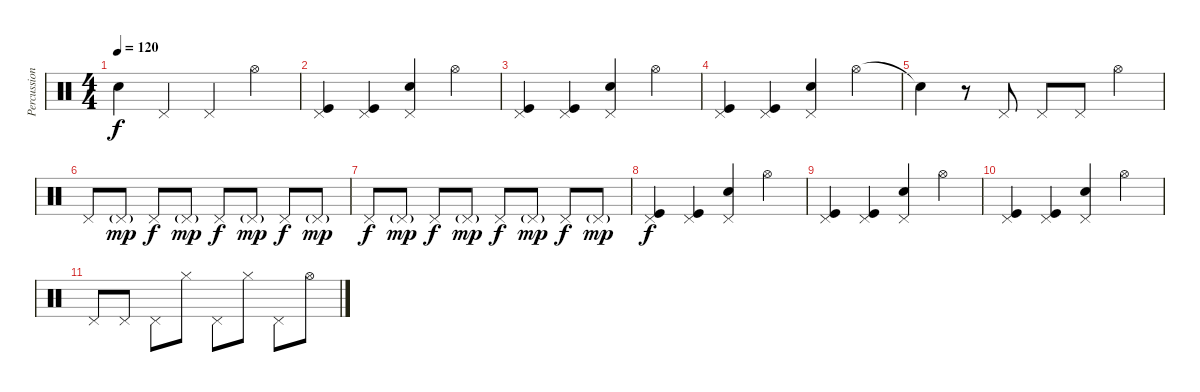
\track ("Percussion" "Percussion") {instrument percussion}
\staff {score}
\articulation defaults
\ts (4 4)
\tempo 120
\clef neutral
\ks c "Snare (hit)"{t}.4{dy f} "Pedal Hi-Hat (hit)".4 "Pedal Hi-Hat (hit)".4 "Hi-Hat (open)".4
|
("Pedal Hi-Hat (hit)" "Kick (hit)").4 ("Pedal Hi-Hat (hit)" "Kick (hit)").4 ("Pedal Hi-Hat (hit)" "Electric Snare (hit)").4 "Hi-Hat (open)".4 |
("Pedal Hi-Hat (hit)" "Kick (hit)").4 ("Pedal Hi-Hat (hit)" "Kick (hit)").4 ("Pedal Hi-Hat (hit)" "Electric Snare (hit)").4 "Hi-Hat (open)".4 |
("Pedal Hi-Hat (hit)" "Kick (hit)").4 ("Pedal Hi-Hat (hit)" "Kick (hit)").4 ("Pedal Hi-Hat (hit)" "Electric Snare (hit)").4 "Hi-Hat (open)".4 |
"Snare (hit)"{t}.4 r.8 "Pedal Hi-Hat (hit)".8 "Pedal Hi-Hat (hit)".8 "Pedal Hi-Hat (hit)".8 "Hi-Hat (open)".4 |
"Pedal Hi-Hat (hit)".8 "Pedal Hi-Hat (hit)"{g}.8{dy mp} "Pedal Hi-Hat (hit)".8{dy f} "Pedal Hi-Hat (hit)"{g}.8{dy mp} "Pedal Hi-Hat (hit)".8{dy f} "Pedal Hi-Hat (hit)"{g}.8{dy mp} "Pedal Hi-Hat (hit)".8{dy f} "Pedal Hi-Hat (hit)"{g}.8{dy mp} |
"Pedal Hi-Hat (hit)".8{dy f} "Pedal Hi-Hat (hit)"{g}.8{dy mp} "Pedal Hi-Hat (hit)".8{dy f} "Pedal Hi-Hat (hit)"{g}.8{dy mp} "Pedal Hi-Hat (hit)".8{dy f} "Pedal Hi-Hat (hit)"{g}.8{dy mp} "Pedal Hi-Hat (hit)".8{dy f} "Pedal Hi-Hat (hit)"{g}.8{dy mp} |
("Pedal Hi-Hat (hit)" "Kick (hit)").4{dy f} ("Pedal Hi-Hat (hit)" "Kick (hit)").4 ("Pedal Hi-Hat (hit)" "Electric Snare (hit)").4 "Hi-Hat (open)".4 |
("Pedal Hi-Hat (hit)" "Kick (hit)").4 ("Pedal Hi-Hat (hit)" "Kick (hit)").4 ("Pedal Hi-Hat (hit)" "Electric Snare (hit)").4 "Hi-Hat (open)".4 |
("Pedal Hi-Hat (hit)" "Kick (hit)").4 ("Pedal Hi-Hat (hit)" "Kick (hit)").4 ("Pedal Hi-Hat (hit)" "Electric Snare (hit)").4 "Hi-Hat (open)".4 |
"Pedal Hi-Hat (hit)".8 "Pedal Hi-Hat (hit)".8 "Pedal Hi-Hat (hit)".8 "Hi-Hat (closed)".8 "Pedal Hi-Hat (hit)".8 "Hi-Hat (closed)".8 "Pedal Hi-Hat (hit)".8 "Hi-Hat (open)".8
